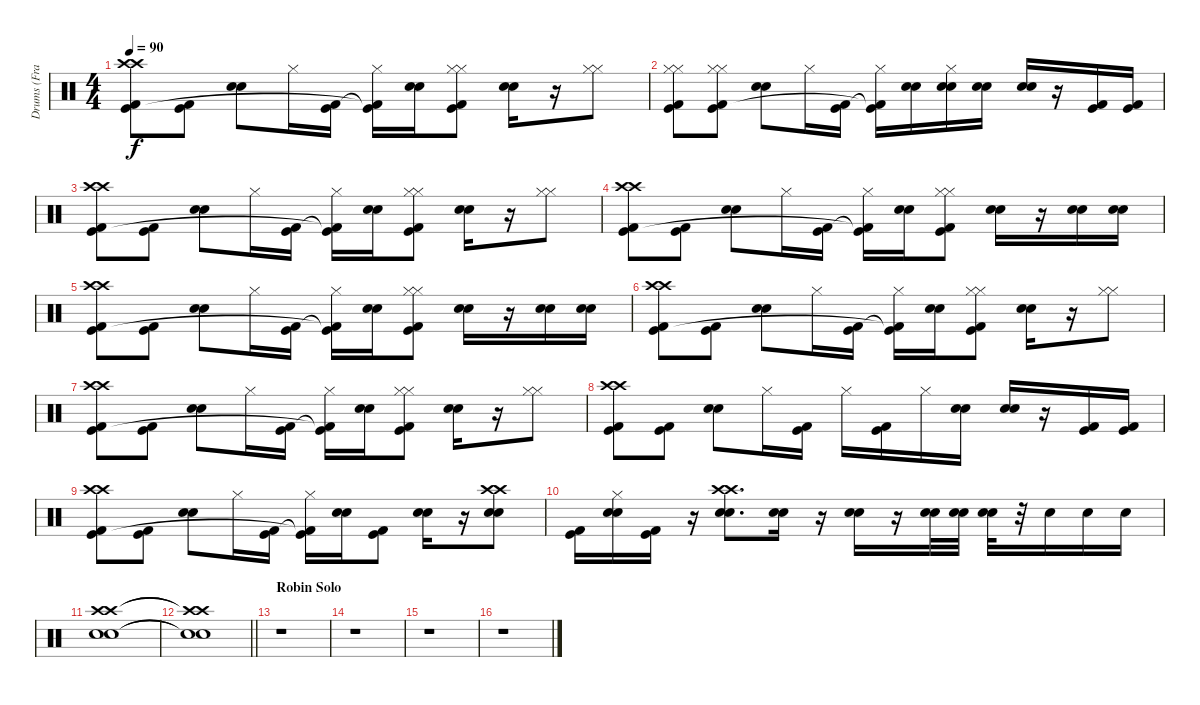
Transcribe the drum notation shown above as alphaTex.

\track ("Drums (Frank Ferrer)" "Drums (Fra") {instrument percussion}
\staff {score}
\articulation defaults
\ts (4 4)
\tempo 90
\clef neutral
\ks c
("Crash high (hit)" "Crash high (hit)" "Kick (hit)" "Kick (hit) 2").8{dy f} ("Kick (hit)" "Kick (hit) 2").8 ("Snare (hit) 2" "Snare (hit) 2").8 "Hi-Hat (closed)".16 ("Kick (hit)" "Kick (hit) 2").16 ("Hi-Hat (closed)" "Kick (hit)"{t} "Kick (hit) 2"{t}).16 ("Snare (hit) 2" "Snare (hit) 2").16 ("Hi-Hat (closed)" "Hi-Hat (closed)" "Kick (hit)" "Kick (hit) 2").8 ("Snare (hit) 2" "Snare (hit) 2").16 r.16 ("Hi-Hat (closed)" "Hi-Hat (closed)").8 |
("Hi-Hat (closed)" "Hi-Hat (closed)" "Kick (hit)" "Kick (hit) 2").8 ("Hi-Hat (closed)" "Hi-Hat (closed)" "Kick (hit)" "Kick (hit) 2").8 ("Snare (hit) 2" "Snare (hit) 2").8 "Hi-Hat (closed)".16 ("Kick (hit)" "Kick (hit) 2").16 ("Hi-Hat (closed)" "Kick (hit)"{t} "Kick (hit) 2"{t}).16 ("Snare (hit) 2" "Snare (hit) 2").16 ("Hi-Hat (closed)" "Snare (hit) 2" "Snare (hit) 2").16 ("Snare (hit) 2" "Snare (hit) 2").16 ("Snare (hit) 2" "Snare (hit) 2").16 r.16 ("Kick (hit)" "Kick (hit) 2").16 ("Kick (hit)" "Kick (hit) 2").16 |
("Crash high (hit)" "Crash high (hit)" "Kick (hit)" "Kick (hit) 2").8 ("Kick (hit)" "Kick (hit) 2").8 ("Snare (hit) 2" "Snare (hit) 2").8 "Hi-Hat (closed)".16 ("Kick (hit)" "Kick (hit) 2").16 ("Hi-Hat (closed)" "Kick (hit)"{t} "Kick (hit) 2"{t}).16 ("Snare (hit) 2" "Snare (hit) 2").16 ("Hi-Hat (closed)" "Hi-Hat (closed)" "Kick (hit)" "Kick (hit) 2").8 ("Snare (hit) 2" "Snare (hit) 2").16 r.16 ("Hi-Hat (closed)" "Hi-Hat (closed)").8 |
("Crash high (hit)" "Crash high (hit)" "Kick (hit)" "Kick (hit) 2").8 ("Kick (hit)" "Kick (hit) 2").8 ("Snare (hit) 2" "Snare (hit) 2").8 "Hi-Hat (closed)".16 ("Kick (hit)" "Kick (hit) 2").16 ("Hi-Hat (closed)" "Kick (hit)"{t} "Kick (hit) 2"{t}).16 ("Snare (hit) 2" "Snare (hit) 2").16 ("Hi-Hat (closed)" "Hi-Hat (closed)" "Kick (hit)" "Kick (hit) 2").8 ("Snare (hit) 2" "Snare (hit) 2").16 r.16 ("Snare (hit) 2" "Snare (hit) 2").16 ("Snare (hit) 2" "Snare (hit) 2").16 |
("Crash high (hit)" "Crash high (hit)" "Kick (hit)" "Kick (hit) 2").8 ("Kick (hit)" "Kick (hit) 2").8 ("Snare (hit) 2" "Snare (hit) 2").8 "Hi-Hat (closed)".16 ("Kick (hit)" "Kick (hit) 2").16 ("Hi-Hat (closed)" "Kick (hit)"{t} "Kick (hit) 2"{t}).16 ("Snare (hit) 2" "Snare (hit) 2").16 ("Hi-Hat (closed)" "Hi-Hat (closed)" "Kick (hit)" "Kick (hit) 2").8 ("Snare (hit) 2" "Snare (hit) 2").16 r.16 ("Snare (hit) 2" "Snare (hit) 2").16 ("Snare (hit) 2" "Snare (hit) 2").16 |
("Crash high (hit)" "Crash high (hit)" "Kick (hit)" "Kick (hit) 2").8 ("Kick (hit)" "Kick (hit) 2").8 ("Snare (hit) 2" "Snare (hit) 2").8 "Hi-Hat (closed)".16 ("Kick (hit)" "Kick (hit) 2").16 ("Hi-Hat (closed)" "Kick (hit)"{t} "Kick (hit) 2"{t}).16 ("Snare (hit) 2" "Snare (hit) 2").16 ("Hi-Hat (closed)" "Hi-Hat (closed)" "Kick (hit)" "Kick (hit) 2").8 ("Snare (hit) 2" "Snare (hit) 2").16 r.16 ("Hi-Hat (closed)" "Hi-Hat (closed)").8 |
("Crash high (hit)" "Crash high (hit)" "Kick (hit)" "Kick (hit) 2").8 ("Kick (hit)" "Kick (hit) 2").8 ("Snare (hit) 2" "Snare (hit) 2").8 "Hi-Hat (closed)".16 ("Kick (hit)" "Kick (hit) 2").16 ("Hi-Hat (closed)" "Kick (hit)"{t} "Kick (hit) 2"{t}).16 ("Snare (hit) 2" "Snare (hit) 2").16 ("Hi-Hat (closed)" "Hi-Hat (closed)" "Kick (hit)" "Kick (hit) 2").8 ("Snare (hit) 2" "Snare (hit) 2").16 r.16 ("Hi-Hat (closed)" "Hi-Hat (closed)").8 |
("Crash high (hit)" "Crash high (hit)" "Kick (hit)" "Kick (hit) 2").8 ("Kick (hit)" "Kick (hit) 2").8 ("Snare (hit) 2" "Snare (hit) 2").8 "Hi-Hat (closed)".16 ("Kick (hit)" "Kick (hit) 2").16 "Hi-Hat (closed)".16 ("Kick (hit)" "Kick (hit) 2").16 "Hi-Hat (closed)".16 ("Snare (hit) 2" "Snare (hit) 2").16 ("Snare (hit) 2" "Snare (hit) 2").16 r.16 ("Kick (hit)" "Kick (hit) 2").16 ("Kick (hit)" "Kick (hit) 2").16 |
("Crash high (hit)" "Crash high (hit)" "Kick (hit)" "Kick (hit) 2").8 ("Kick (hit)" "Kick (hit) 2").8 ("Snare (hit) 2" "Snare (hit) 2").8 "Hi-Hat (closed)".16 ("Kick (hit)" "Kick (hit) 2").16 ("Hi-Hat (closed)" "Kick (hit)"{t} "Kick (hit) 2"{t}).16 ("Snare (hit) 2" "Snare (hit) 2").16 ("Kick (hit)" "Kick (hit) 2").8 ("Snare (hit) 2" "Snare (hit) 2").16 r.16 ("Crash high (hit)" "Crash high (hit)" "Snare (hit) 2" "Snare (hit) 2").8 |
("Kick (hit)" "Kick (hit) 2").16 ("Hi-Hat (closed)" "Snare (hit) 2" "Snare (hit) 2").16 ("Kick (hit)" "Kick (hit) 2").16 r.16 ("Crash high (hit)" "Crash high (hit)" "Snare (hit) 2" "Snare (hit) 2").8{d} ("Snare (hit) 2" "Snare (hit) 2").16 r.16 ("Snare (hit) 2" "Snare (hit) 2").16 r.16 ("Snare (hit) 2" "Snare (hit) 2").32 ("Snare (hit) 2" "Snare (hit) 2").32 ("Snare (hit) 2" "Snare (hit) 2").32 r.32 "Snare (hit) 2".16 "Snare (hit) 2".16 "Snare (hit) 2".16 |
("Crash high (hit)" "Crash high (hit)" "Snare (hit) 2" "Snare (hit) 2").1 |
\barLineRight lightlight
("Crash high (hit)"{t} "Crash high (hit)"{t} "Snare (hit) 2"{t} "Snare (hit) 2"{t}).1 |
\section ("" "Robin Solo")
r.1 |
r.1 |
r.1 |
r.1
